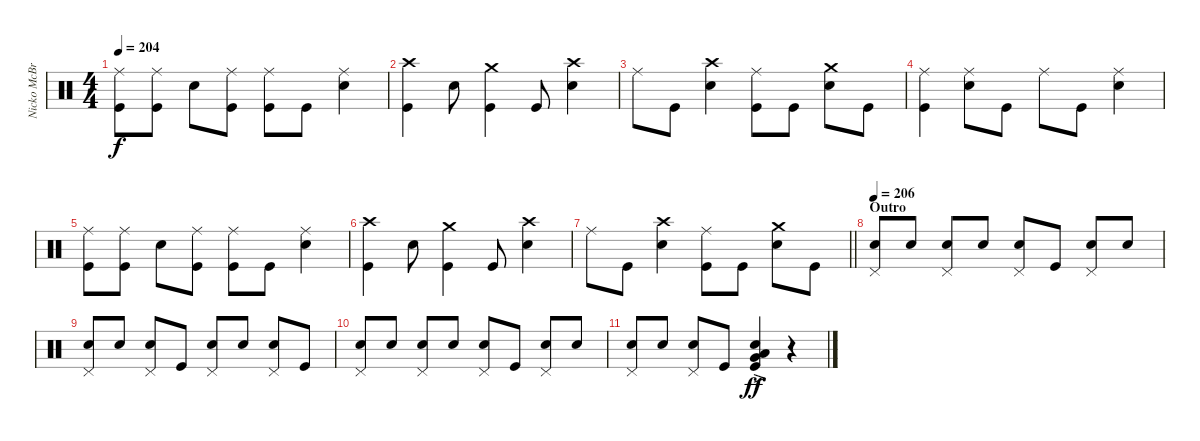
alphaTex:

\track ("Nicko McBrain" "Nicko McBr") {instrument percussion}
\staff {score}
\articulation defaults
\ts (4 4)
\tempo 204
\clef neutral
\ks c
("Ride (middle)" "Kick (hit)").8{dy f} ("Ride (middle)" "Kick (hit)").8 "Electric Snare (hit)".8 ("Ride (middle)" "Kick (hit)").8 ("Ride (middle)" "Kick (hit)").8 "Kick (hit)".8 ("Ride (middle)" "Electric Snare (hit)").4 |
("Crash high (hit)" "Kick (hit)").4 "Electric Snare (hit)".8 ("Crash medium (hit)" "Kick (hit)").4 "Kick (hit)".8 ("Crash high (hit)" "Electric Snare (hit)").4 |
"Ride (middle)".8 "Kick (hit)".8 ("Crash high (hit)" "Electric Snare (hit)").4 ("Ride (middle)" "Kick (hit)").8 "Kick (hit)".8 ("Crash medium (hit)" "Electric Snare (hit)").8 "Kick (hit)".8 |
("Ride (middle)" "Kick (hit)").4 ("Ride (middle)" "Electric Snare (hit)").8 "Kick (hit)".8 "Ride (middle)".8 "Kick (hit)".8 ("Ride (middle)" "Electric Snare (hit)").4 |
("Ride (middle)" "Kick (hit)").8 ("Ride (middle)" "Kick (hit)").8 "Electric Snare (hit)".8 ("Ride (middle)" "Kick (hit)").8 ("Ride (middle)" "Kick (hit)").8 "Kick (hit)".8 ("Ride (middle)" "Electric Snare (hit)").4 |
("Crash high (hit)" "Kick (hit)").4 "Electric Snare (hit)".8 ("Crash medium (hit)" "Kick (hit)").4 "Kick (hit)".8 ("Crash high (hit)" "Electric Snare (hit)").4 |
\barLineRight lightlight "Ride (middle)".8 "Kick (hit)".8
("Crash high (hit)" "Electric Snare (hit)").4 ("Ride (middle)" "Kick (hit)").8 "Kick (hit)".8 ("Crash medium (hit)" "Electric Snare (hit)").8 "Kick (hit)".8 |
\section ("" "Outro")
\tempo 206
("Electric Snare (hit)" "Pedal Hi-Hat (hit)").8 "Electric Snare (hit)".8 ("Electric Snare (hit)" "Pedal Hi-Hat (hit)").8 "Electric Snare (hit)".8 ("Electric Snare (hit)" "Pedal Hi-Hat (hit)").8 "Kick (hit)".8 ("Electric Snare (hit)" "Pedal Hi-Hat (hit)").8 "Electric Snare (hit)".8 |
("Electric Snare (hit)" "Pedal Hi-Hat (hit)").8 "Electric Snare (hit)".8 ("Electric Snare (hit)" "Pedal Hi-Hat (hit)").8 "Kick (hit)".8 ("Electric Snare (hit)" "Pedal Hi-Hat (hit)").8 "Electric Snare (hit)".8 ("Electric Snare (hit)" "Pedal Hi-Hat (hit)").8 "Kick (hit)".8 |
("Electric Snare (hit)" "Pedal Hi-Hat (hit)").8 "Electric Snare (hit)".8 ("Electric Snare (hit)" "Pedal Hi-Hat (hit)").8 "Electric Snare (hit)".8 ("Electric Snare (hit)" "Pedal Hi-Hat (hit)").8 "Kick (hit)".8 ("Electric Snare (hit)" "Pedal Hi-Hat (hit)").8 "Electric Snare (hit)".8 |
("Electric Snare (hit)" "Pedal Hi-Hat (hit)").8 "Electric Snare (hit)".8 ("Electric Snare (hit)" "Pedal Hi-Hat (hit)").8 "Kick (hit)".8 ("Electric Snare (hit)"{ac} "Very Low Tom (hit)"{ac} "Low Floor Tom (hit)"{ac} "Kick (hit)"{ac}).4{dy ff} r.4
